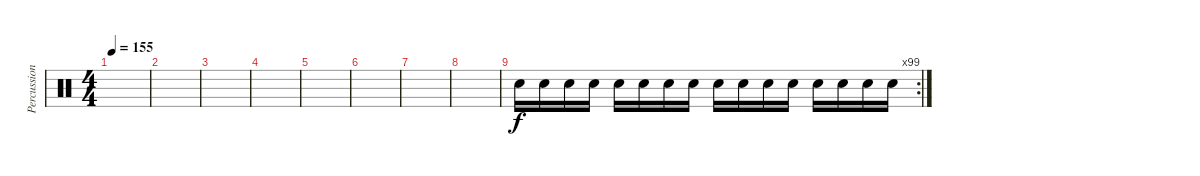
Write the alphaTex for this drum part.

\track ("Percussion" "Percussion") {instrument percussion}
\staff {score}
\articulation defaults
\ts (4 4)
\tempo 155
\clef neutral
\ks c
|
|
|
|
|
|
|
|
\rc 99 "Snare (hit) 2".16 "Snare (hit) 2".16 "Snare (hit) 2".16 "Snare (hit) 2".16 "Snare (hit) 2".16 "Snare (hit) 2".16 "Snare (hit) 2".16 "Snare (hit) 2".16 "Snare (hit) 2".16 "Snare (hit) 2".16 "Snare (hit) 2".16 "Snare (hit) 2".16 "Snare (hit) 2".16 "Snare (hit) 2".16 "Snare (hit) 2".16 "Snare (hit) 2".16
